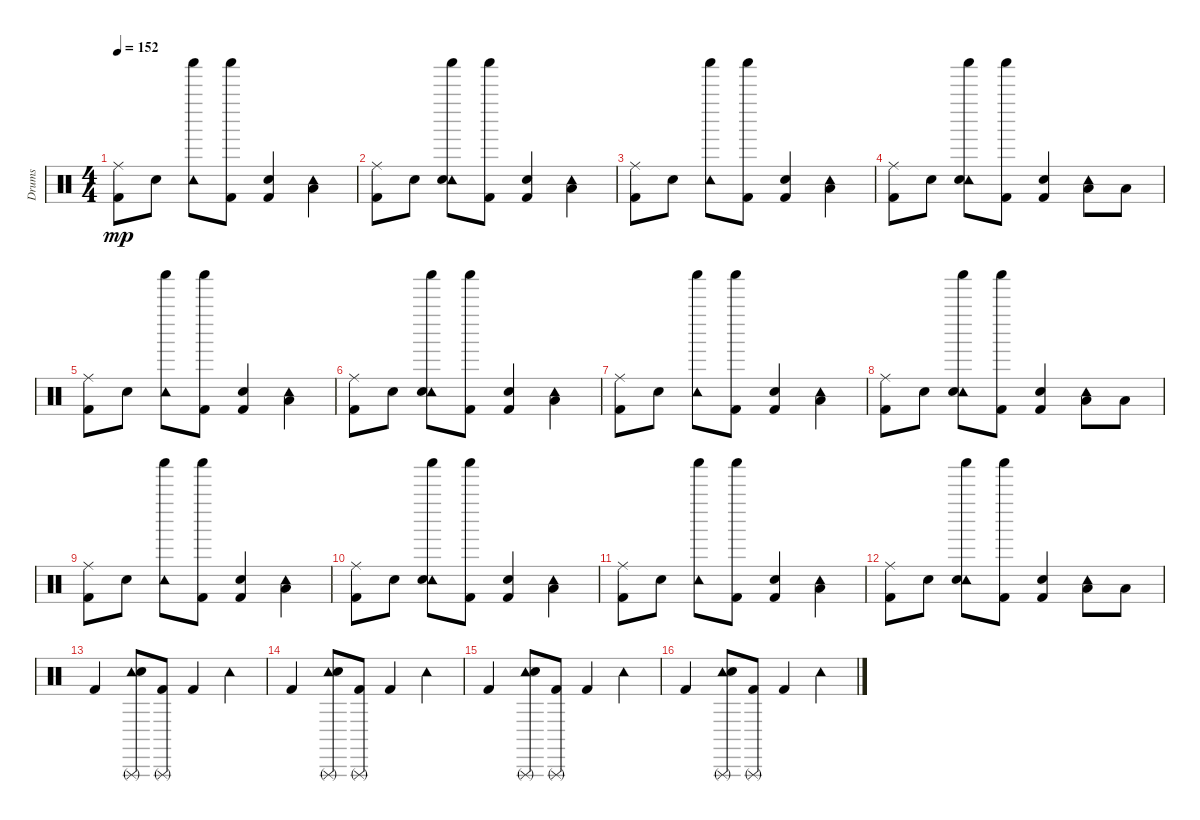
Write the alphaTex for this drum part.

\track ("Drums" "Drums") {instrument percussion}
\staff {score}
\articulation defaults
\ts (4 4)
\tempo 152
\clef neutral
\ks c
("Ride (middle)" "Kick (hit) 2").8{dy mp} "Snare (hit) 2".8 ("Shaker (hit)" "Tambourine (hit)").8 ("Shaker (hit)" "Kick (hit) 2").8 ("Kick (hit) 2" "Snare (hit) 2").4 ("Tambourine (hit)" "Low Tom (hit)").4 |
("Ride (middle)" "Kick (hit) 2").8 "Snare (hit) 2".8 ("Shaker (hit)" "Tambourine (hit)" "Snare (hit) 2").8 ("Shaker (hit)" "Kick (hit) 2").8 ("Kick (hit) 2" "Snare (hit) 2").4 ("Tambourine (hit)" "Low Tom (hit)").4 |
("Ride (middle)" "Kick (hit) 2").8 "Snare (hit) 2".8 ("Shaker (hit)" "Tambourine (hit)").8 ("Shaker (hit)" "Kick (hit) 2").8 ("Kick (hit) 2" "Snare (hit) 2").4 ("Tambourine (hit)" "Low Tom (hit)").4 |
("Ride (middle)" "Kick (hit) 2").8 "Snare (hit) 2".8 ("Shaker (hit)" "Tambourine (hit)" "Snare (hit) 2").8 ("Shaker (hit)" "Kick (hit) 2").8 ("Kick (hit) 2" "Snare (hit) 2").4 ("Tambourine (hit)" "Low Tom (hit)").8 "Low Tom (hit)".8 |
("Ride (middle)" "Kick (hit) 2").8 "Snare (hit) 2".8 ("Shaker (hit)" "Tambourine (hit)").8 ("Shaker (hit)" "Kick (hit) 2").8 ("Kick (hit) 2" "Snare (hit) 2").4 ("Tambourine (hit)" "Low Tom (hit)").4 |
("Ride (middle)" "Kick (hit) 2").8 "Snare (hit) 2".8 ("Shaker (hit)" "Tambourine (hit)" "Snare (hit) 2").8 ("Shaker (hit)" "Kick (hit) 2").8 ("Kick (hit) 2" "Snare (hit) 2").4 ("Tambourine (hit)" "Low Tom (hit)").4 |
("Ride (middle)" "Kick (hit) 2").8 "Snare (hit) 2".8 ("Shaker (hit)" "Tambourine (hit)").8 ("Shaker (hit)" "Kick (hit) 2").8 ("Kick (hit) 2" "Snare (hit) 2").4 ("Tambourine (hit)" "Low Tom (hit)").4 |
("Ride (middle)" "Kick (hit) 2").8 "Snare (hit) 2".8 ("Shaker (hit)" "Tambourine (hit)" "Snare (hit) 2").8 ("Shaker (hit)" "Kick (hit) 2").8 ("Kick (hit) 2" "Snare (hit) 2").4 ("Tambourine (hit)" "Low Tom (hit)").8 "Low Tom (hit)".8 |
("Ride (middle)" "Kick (hit) 2").8 "Snare (hit) 2".8 ("Shaker (hit)" "Tambourine (hit)").8 ("Shaker (hit)" "Kick (hit) 2").8 ("Kick (hit) 2" "Snare (hit) 2").4 ("Tambourine (hit)" "Low Tom (hit)").4 |
("Ride (middle)" "Kick (hit) 2").8 "Snare (hit) 2".8 ("Shaker (hit)" "Tambourine (hit)" "Snare (hit) 2").8 ("Shaker (hit)" "Kick (hit) 2").8 ("Kick (hit) 2" "Snare (hit) 2").4 ("Tambourine (hit)" "Low Tom (hit)").4 |
("Ride (middle)" "Kick (hit) 2").8 "Snare (hit) 2".8 ("Shaker (hit)" "Tambourine (hit)").8 ("Shaker (hit)" "Kick (hit) 2").8 ("Kick (hit) 2" "Snare (hit) 2").4 ("Tambourine (hit)" "Low Tom (hit)").4 |
("Ride (middle)" "Kick (hit) 2").8 "Snare (hit) 2".8 ("Shaker (hit)" "Tambourine (hit)" "Snare (hit) 2").8 ("Shaker (hit)" "Kick (hit) 2").8 ("Kick (hit) 2" "Snare (hit) 2").4 ("Tambourine (hit)" "Low Tom (hit)").8 "Low Tom (hit)".8 |
"Kick (hit) 2".4 ("Triangle (rnute)" "Tambourine (hit)" "Snare (hit) 2").8 ("Triangle (rnute)" "Kick (hit) 2").8 "Kick (hit) 2".4 "Tambourine (hit)".4 |
"Kick (hit) 2".4 ("Triangle (rnute)" "Tambourine (hit)" "Snare (hit) 2").8 ("Triangle (rnute)" "Kick (hit) 2").8 "Kick (hit) 2".4 "Tambourine (hit)".4 |
"Kick (hit) 2".4 ("Triangle (rnute)" "Tambourine (hit)" "Snare (hit) 2").8 ("Triangle (rnute)" "Kick (hit) 2").8 "Kick (hit) 2".4 "Tambourine (hit)".4 |
"Kick (hit) 2".4 ("Triangle (rnute)" "Tambourine (hit)" "Snare (hit) 2").8 ("Triangle (rnute)" "Kick (hit) 2").8 "Kick (hit) 2".4 "Tambourine (hit)".4
